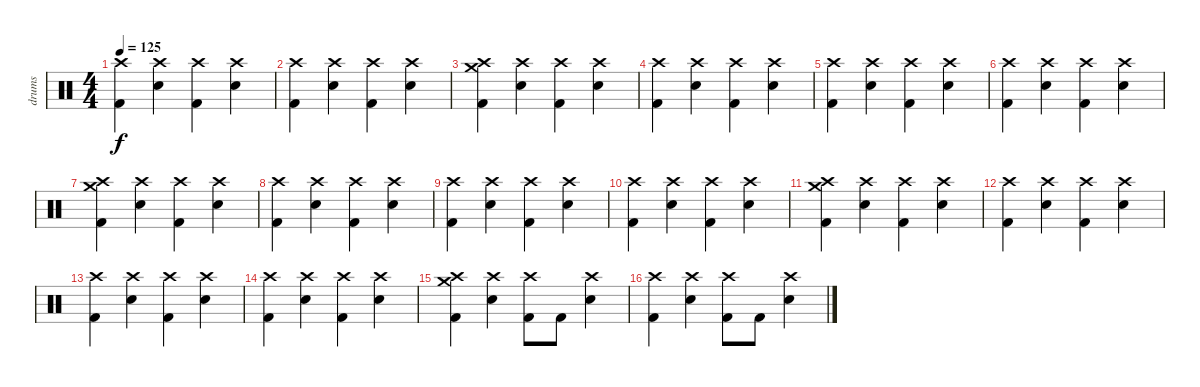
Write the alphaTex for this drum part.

\track ("drums" "drums") {instrument percussion}
\staff {score}
\articulation defaults
\ts (4 4)
\tempo 125
\clef neutral
\ks c
("Crash high (hit)" "Kick (hit) 2").4{dy f} ("Crash high (hit)" "Snare (hit) 2").4 ("Crash high (hit)" "Kick (hit) 2").4 ("Crash high (hit)" "Snare (hit) 2").4 |
("Crash high (hit)" "Kick (hit) 2").4 ("Crash high (hit)" "Snare (hit) 2").4 ("Crash high (hit)" "Kick (hit) 2").4 ("Crash high (hit)" "Snare (hit) 2").4 |
("Crash high (hit)" "Crash medium (hit)" "Kick (hit) 2").4 ("Crash high (hit)" "Snare (hit) 2").4 ("Crash high (hit)" "Kick (hit) 2").4 ("Crash high (hit)" "Snare (hit) 2").4 |
("Crash high (hit)" "Kick (hit) 2").4 ("Crash high (hit)" "Snare (hit) 2").4 ("Crash high (hit)" "Kick (hit) 2").4 ("Crash high (hit)" "Snare (hit) 2").4 |
("Crash high (hit)" "Kick (hit) 2").4 ("Crash high (hit)" "Snare (hit) 2").4 ("Crash high (hit)" "Kick (hit) 2").4 ("Crash high (hit)" "Snare (hit) 2").4 |
("Crash high (hit)" "Kick (hit) 2").4 ("Crash high (hit)" "Snare (hit) 2").4 ("Crash high (hit)" "Kick (hit) 2").4 ("Crash high (hit)" "Snare (hit) 2").4 |
("Crash high (hit)" "Crash medium (hit)" "Kick (hit) 2").4 ("Crash high (hit)" "Snare (hit) 2").4 ("Crash high (hit)" "Kick (hit) 2").4 ("Crash high (hit)" "Snare (hit) 2").4 |
("Crash high (hit)" "Kick (hit) 2").4 ("Crash high (hit)" "Snare (hit) 2").4 ("Crash high (hit)" "Kick (hit) 2").4 ("Crash high (hit)" "Snare (hit) 2").4 |
("Crash high (hit)" "Kick (hit) 2").4 ("Crash high (hit)" "Snare (hit) 2").4 ("Crash high (hit)" "Kick (hit) 2").4 ("Crash high (hit)" "Snare (hit) 2").4 |
("Crash high (hit)" "Kick (hit) 2").4 ("Crash high (hit)" "Snare (hit) 2").4 ("Crash high (hit)" "Kick (hit) 2").4 ("Crash high (hit)" "Snare (hit) 2").4 |
("Crash high (hit)" "Crash medium (hit)" "Kick (hit) 2").4 ("Crash high (hit)" "Snare (hit) 2").4 ("Crash high (hit)" "Kick (hit) 2").4 ("Crash high (hit)" "Snare (hit) 2").4 |
("Crash high (hit)" "Kick (hit) 2").4 ("Crash high (hit)" "Snare (hit) 2").4 ("Crash high (hit)" "Kick (hit) 2").4 ("Crash high (hit)" "Snare (hit) 2").4 |
("Crash high (hit)" "Kick (hit) 2").4 ("Crash high (hit)" "Snare (hit) 2").4 ("Crash high (hit)" "Kick (hit) 2").4 ("Crash high (hit)" "Snare (hit) 2").4 |
("Crash high (hit)" "Kick (hit) 2").4 ("Crash high (hit)" "Snare (hit) 2").4 ("Crash high (hit)" "Kick (hit) 2").4 ("Crash high (hit)" "Snare (hit) 2").4 |
("Crash high (hit)" "Crash medium (hit)" "Kick (hit) 2").4 ("Crash high (hit)" "Snare (hit) 2").4 ("Crash high (hit)" "Kick (hit) 2").8 "Kick (hit) 2".8 ("Crash high (hit)" "Snare (hit) 2").4 |
("Crash high (hit)" "Kick (hit) 2").4 ("Crash high (hit)" "Snare (hit) 2").4 ("Crash high (hit)" "Kick (hit) 2").8 "Kick (hit) 2".8 ("Crash high (hit)" "Snare (hit) 2").4
